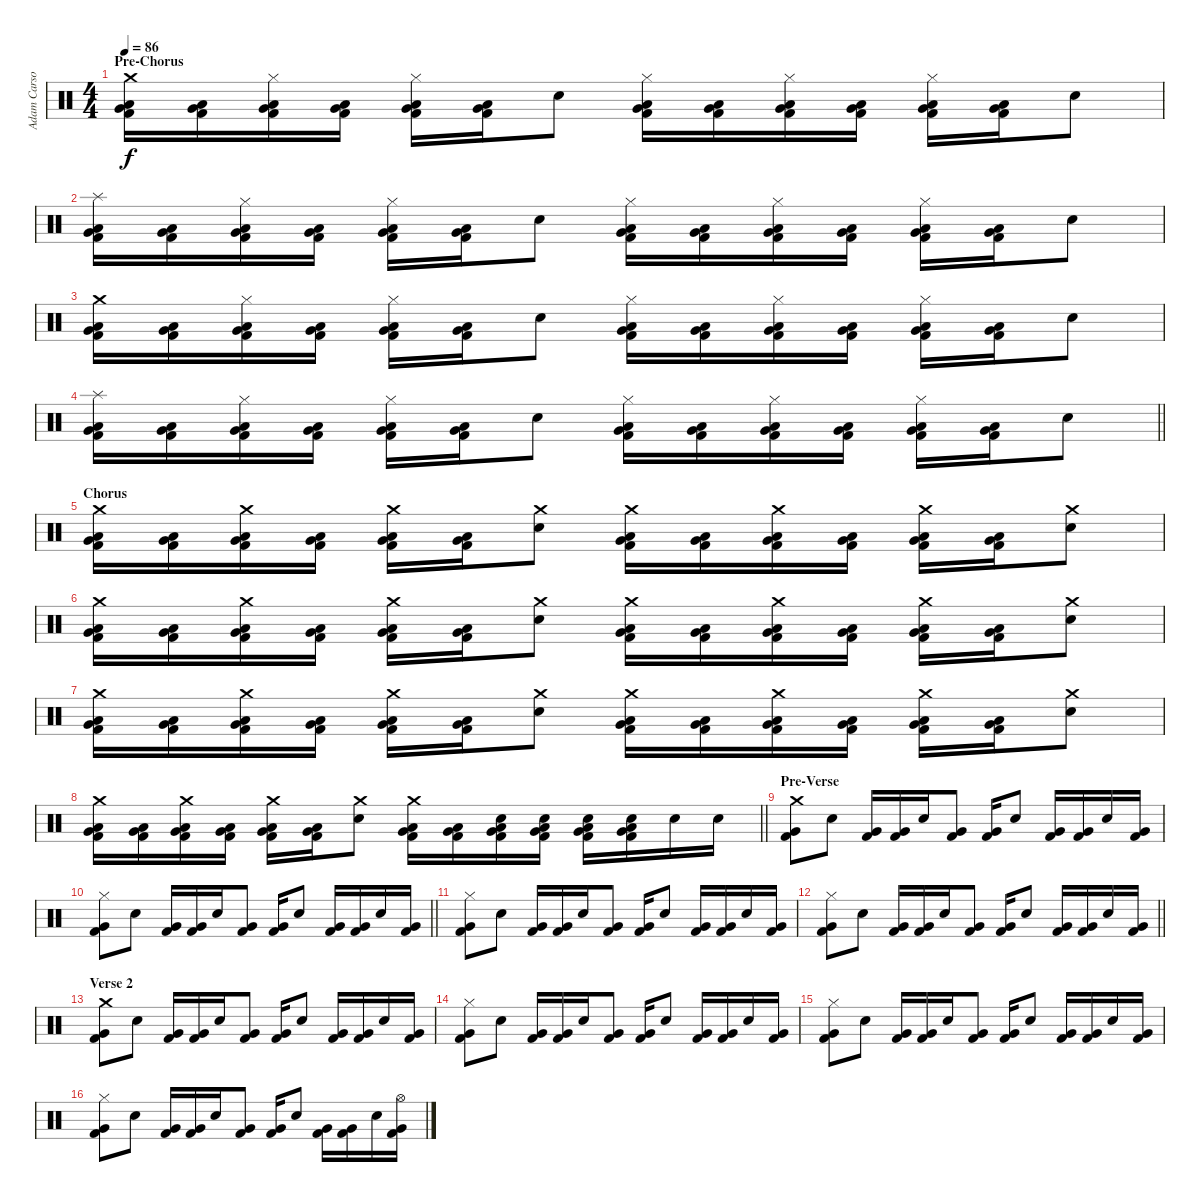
\track ("Adam Carson" "Adam Carso") {instrument percussion}
\staff {score}
\articulation defaults
\ts (4 4)
\section ("" "Pre-Chorus")
\tempo 86
\clef neutral
\ks c
("Crash medium (hit)" "Low Tom (hit)" "Very Low Tom (hit)" "Kick (hit) 2").16{dy f} ("Low Tom (hit)" "Very Low Tom (hit)" "Kick (hit) 2").16 ("Hi-Hat (closed)" "Low Tom (hit)" "Very Low Tom (hit)" "Kick (hit) 2").16 ("Low Tom (hit)" "Very Low Tom (hit)" "Kick (hit) 2").16 ("Hi-Hat (closed)" "Low Tom (hit)" "Very Low Tom (hit)" "Kick (hit) 2").16 ("Low Tom (hit)" "Very Low Tom (hit)" "Kick (hit) 2").16 "Snare (hit) 2".8 ("Hi-Hat (closed)" "Low Tom (hit)" "Very Low Tom (hit)" "Kick (hit) 2").16 ("Low Tom (hit)" "Very Low Tom (hit)" "Kick (hit) 2").16 ("Hi-Hat (closed)" "Low Tom (hit)" "Very Low Tom (hit)" "Kick (hit) 2").16 ("Low Tom (hit)" "Very Low Tom (hit)" "Kick (hit) 2").16 ("Hi-Hat (closed)" "Low Tom (hit)" "Very Low Tom (hit)" "Kick (hit) 2").16 ("Low Tom (hit)" "Very Low Tom (hit)" "Kick (hit) 2").16 "Snare (hit) 2".8 |
("Splash (hit)" "Low Tom (hit)" "Very Low Tom (hit)" "Kick (hit) 2").16 ("Low Tom (hit)" "Very Low Tom (hit)" "Kick (hit) 2").16 ("Hi-Hat (closed)" "Low Tom (hit)" "Very Low Tom (hit)" "Kick (hit) 2").16 ("Low Tom (hit)" "Very Low Tom (hit)" "Kick (hit) 2").16 ("Hi-Hat (closed)" "Low Tom (hit)" "Very Low Tom (hit)" "Kick (hit) 2").16 ("Low Tom (hit)" "Very Low Tom (hit)" "Kick (hit) 2").16 "Snare (hit) 2".8 ("Hi-Hat (closed)" "Low Tom (hit)" "Very Low Tom (hit)" "Kick (hit) 2").16 ("Low Tom (hit)" "Very Low Tom (hit)" "Kick (hit) 2").16 ("Hi-Hat (closed)" "Low Tom (hit)" "Very Low Tom (hit)" "Kick (hit) 2").16 ("Low Tom (hit)" "Very Low Tom (hit)" "Kick (hit) 2").16 ("Hi-Hat (closed)" "Low Tom (hit)" "Very Low Tom (hit)" "Kick (hit) 2").16 ("Low Tom (hit)" "Very Low Tom (hit)" "Kick (hit) 2").16 "Snare (hit) 2".8 |
("Crash medium (hit)" "Low Tom (hit)" "Very Low Tom (hit)" "Kick (hit) 2").16 ("Low Tom (hit)" "Very Low Tom (hit)" "Kick (hit) 2").16 ("Hi-Hat (closed)" "Low Tom (hit)" "Very Low Tom (hit)" "Kick (hit) 2").16 ("Low Tom (hit)" "Very Low Tom (hit)" "Kick (hit) 2").16 ("Hi-Hat (closed)" "Low Tom (hit)" "Very Low Tom (hit)" "Kick (hit) 2").16 ("Low Tom (hit)" "Very Low Tom (hit)" "Kick (hit) 2").16 "Snare (hit) 2".8 ("Hi-Hat (closed)" "Low Tom (hit)" "Very Low Tom (hit)" "Kick (hit) 2").16 ("Low Tom (hit)" "Very Low Tom (hit)" "Kick (hit) 2").16 ("Hi-Hat (closed)" "Low Tom (hit)" "Very Low Tom (hit)" "Kick (hit) 2").16 ("Low Tom (hit)" "Very Low Tom (hit)" "Kick (hit) 2").16 ("Hi-Hat (closed)" "Low Tom (hit)" "Very Low Tom (hit)" "Kick (hit) 2").16 ("Low Tom (hit)" "Very Low Tom (hit)" "Kick (hit) 2").16 "Snare (hit) 2".8 |
\barLineRight lightlight
("Splash (hit)" "Low Tom (hit)" "Very Low Tom (hit)" "Kick (hit) 2").16 ("Low Tom (hit)" "Very Low Tom (hit)" "Kick (hit) 2").16 ("Hi-Hat (closed)" "Low Tom (hit)" "Very Low Tom (hit)" "Kick (hit) 2").16 ("Low Tom (hit)" "Very Low Tom (hit)" "Kick (hit) 2").16 ("Hi-Hat (closed)" "Low Tom (hit)" "Very Low Tom (hit)" "Kick (hit) 2").16 ("Low Tom (hit)" "Very Low Tom (hit)" "Kick (hit) 2").16 "Snare (hit) 2".8 ("Hi-Hat (closed)" "Low Tom (hit)" "Very Low Tom (hit)" "Kick (hit) 2").16 ("Low Tom (hit)" "Very Low Tom (hit)" "Kick (hit) 2").16 ("Hi-Hat (closed)" "Low Tom (hit)" "Very Low Tom (hit)" "Kick (hit) 2").16 ("Low Tom (hit)" "Very Low Tom (hit)" "Kick (hit) 2").16 ("Hi-Hat (closed)" "Low Tom (hit)" "Very Low Tom (hit)" "Kick (hit) 2").16 ("Low Tom (hit)" "Very Low Tom (hit)" "Kick (hit) 2").16 "Snare (hit) 2".8 |
\section ("" "Chorus")
("Crash medium (hit)" "Low Tom (hit)" "Very Low Tom (hit)" "Kick (hit) 2").16 ("Low Tom (hit)" "Very Low Tom (hit)" "Kick (hit) 2").16 ("Crash medium (hit)" "Low Tom (hit)" "Very Low Tom (hit)" "Kick (hit) 2").16 ("Low Tom (hit)" "Very Low Tom (hit)" "Kick (hit) 2").16 ("Crash medium (hit)" "Low Tom (hit)" "Very Low Tom (hit)" "Kick (hit) 2").16 ("Low Tom (hit)" "Very Low Tom (hit)" "Kick (hit) 2").16 ("Crash medium (hit)" "Snare (hit) 2").8 ("Crash medium (hit)" "Low Tom (hit)" "Very Low Tom (hit)" "Kick (hit) 2").16 ("Low Tom (hit)" "Very Low Tom (hit)" "Kick (hit) 2").16 ("Crash medium (hit)" "Low Tom (hit)" "Very Low Tom (hit)" "Kick (hit) 2").16 ("Low Tom (hit)" "Very Low Tom (hit)" "Kick (hit) 2").16 ("Crash medium (hit)" "Low Tom (hit)" "Very Low Tom (hit)" "Kick (hit) 2").16 ("Low Tom (hit)" "Very Low Tom (hit)" "Kick (hit) 2").16 ("Crash medium (hit)" "Snare (hit) 2").8 |
("Crash medium (hit)" "Low Tom (hit)" "Very Low Tom (hit)" "Kick (hit) 2").16 ("Low Tom (hit)" "Very Low Tom (hit)" "Kick (hit) 2").16 ("Crash medium (hit)" "Low Tom (hit)" "Very Low Tom (hit)" "Kick (hit) 2").16 ("Low Tom (hit)" "Very Low Tom (hit)" "Kick (hit) 2").16 ("Crash medium (hit)" "Low Tom (hit)" "Very Low Tom (hit)" "Kick (hit) 2").16 ("Low Tom (hit)" "Very Low Tom (hit)" "Kick (hit) 2").16 ("Crash medium (hit)" "Snare (hit) 2").8 ("Crash medium (hit)" "Low Tom (hit)" "Very Low Tom (hit)" "Kick (hit) 2").16 ("Low Tom (hit)" "Very Low Tom (hit)" "Kick (hit) 2").16 ("Crash medium (hit)" "Low Tom (hit)" "Very Low Tom (hit)" "Kick (hit) 2").16 ("Low Tom (hit)" "Very Low Tom (hit)" "Kick (hit) 2").16 ("Crash medium (hit)" "Low Tom (hit)" "Very Low Tom (hit)" "Kick (hit) 2").16 ("Low Tom (hit)" "Very Low Tom (hit)" "Kick (hit) 2").16 ("Crash medium (hit)" "Snare (hit) 2").8 |
("Crash medium (hit)" "Low Tom (hit)" "Very Low Tom (hit)" "Kick (hit) 2").16 ("Low Tom (hit)" "Very Low Tom (hit)" "Kick (hit) 2").16 ("Crash medium (hit)" "Low Tom (hit)" "Very Low Tom (hit)" "Kick (hit) 2").16 ("Low Tom (hit)" "Very Low Tom (hit)" "Kick (hit) 2").16 ("Crash medium (hit)" "Low Tom (hit)" "Very Low Tom (hit)" "Kick (hit) 2").16 ("Low Tom (hit)" "Very Low Tom (hit)" "Kick (hit) 2").16 ("Crash medium (hit)" "Snare (hit) 2").8 ("Crash medium (hit)" "Low Tom (hit)" "Very Low Tom (hit)" "Kick (hit) 2").16 ("Low Tom (hit)" "Very Low Tom (hit)" "Kick (hit) 2").16 ("Crash medium (hit)" "Low Tom (hit)" "Very Low Tom (hit)" "Kick (hit) 2").16 ("Low Tom (hit)" "Very Low Tom (hit)" "Kick (hit) 2").16 ("Crash medium (hit)" "Low Tom (hit)" "Very Low Tom (hit)" "Kick (hit) 2").16 ("Low Tom (hit)" "Very Low Tom (hit)" "Kick (hit) 2").16 ("Crash medium (hit)" "Snare (hit) 2").8 |
\barLineRight lightlight
("Crash medium (hit)" "Low Tom (hit)" "Very Low Tom (hit)" "Kick (hit) 2").16 ("Low Tom (hit)" "Very Low Tom (hit)" "Kick (hit) 2").16 ("Crash medium (hit)" "Low Tom (hit)" "Very Low Tom (hit)" "Kick (hit) 2").16 ("Low Tom (hit)" "Very Low Tom (hit)" "Kick (hit) 2").16 ("Crash medium (hit)" "Low Tom (hit)" "Very Low Tom (hit)" "Kick (hit) 2").16 ("Low Tom (hit)" "Very Low Tom (hit)" "Kick (hit) 2").16 ("Crash medium (hit)" "Snare (hit) 2").8 ("Crash medium (hit)" "Low Tom (hit)" "Very Low Tom (hit)" "Kick (hit) 2").16 ("Low Tom (hit)" "Very Low Tom (hit)" "Kick (hit) 2").16 ("Snare (hit) 2" "Low Tom (hit)" "Very Low Tom (hit)" "Kick (hit) 2").16 ("Snare (hit) 2" "Low Tom (hit)" "Very Low Tom (hit)" "Kick (hit) 2").16 ("Snare (hit) 2" "Low Tom (hit)" "Very Low Tom (hit)" "Kick (hit) 2").16 ("Snare (hit) 2" "Low Tom (hit)" "Very Low Tom (hit)" "Kick (hit) 2").16 "Snare (hit) 2".16 "Snare (hit) 2".16 |
\section ("" "Pre-Verse")
("Crash medium (hit)" "Very Low Tom (hit)" "Kick (hit) 2").8 "Snare (hit) 2".8 ("Very Low Tom (hit)" "Kick (hit) 2").16 ("Very Low Tom (hit)" "Kick (hit) 2").16 "Snare (hit) 2".16 ("Very Low Tom (hit)" "Kick (hit) 2").8 ("Very Low Tom (hit)" "Kick (hit) 2").16 "Snare (hit) 2".8 ("Very Low Tom (hit)" "Kick (hit) 2").16 ("Very Low Tom (hit)" "Kick (hit) 2").16 "Snare (hit) 2".16 ("Very Low Tom (hit)" "Kick (hit) 2").16 |
\barLineRight lightlight
("Hi-Hat (closed)" "Very Low Tom (hit)" "Kick (hit) 2").8 "Snare (hit) 2".8 ("Very Low Tom (hit)" "Kick (hit) 2").16 ("Very Low Tom (hit)" "Kick (hit) 2").16 "Snare (hit) 2".16 ("Very Low Tom (hit)" "Kick (hit) 2").8 ("Very Low Tom (hit)" "Kick (hit) 2").16 "Snare (hit) 2".8 ("Very Low Tom (hit)" "Kick (hit) 2").16 ("Very Low Tom (hit)" "Kick (hit) 2").16 "Snare (hit) 2".16 ("Very Low Tom (hit)" "Kick (hit) 2").16 |
("Hi-Hat (closed)" "Very Low Tom (hit)" "Kick (hit) 2").8 "Snare (hit) 2".8 ("Very Low Tom (hit)" "Kick (hit) 2").16 ("Very Low Tom (hit)" "Kick (hit) 2").16 "Snare (hit) 2".16 ("Very Low Tom (hit)" "Kick (hit) 2").8 ("Very Low Tom (hit)" "Kick (hit) 2").16 "Snare (hit) 2".8 ("Very Low Tom (hit)" "Kick (hit) 2").16 ("Very Low Tom (hit)" "Kick (hit) 2").16 "Snare (hit) 2".16 ("Very Low Tom (hit)" "Kick (hit) 2").16 |
\barLineRight lightlight
("Hi-Hat (closed)" "Very Low Tom (hit)" "Kick (hit) 2").8 "Snare (hit) 2".8 ("Very Low Tom (hit)" "Kick (hit) 2").16 ("Very Low Tom (hit)" "Kick (hit) 2").16 "Snare (hit) 2".16 ("Very Low Tom (hit)" "Kick (hit) 2").8 ("Very Low Tom (hit)" "Kick (hit) 2").16 "Snare (hit) 2".8 ("Very Low Tom (hit)" "Kick (hit) 2").16 ("Very Low Tom (hit)" "Kick (hit) 2").16 "Snare (hit) 2".16 ("Very Low Tom (hit)" "Kick (hit) 2").16 |
\section ("" "Verse 2")
("Crash medium (hit)" "Very Low Tom (hit)" "Kick (hit) 2").8 "Snare (hit) 2".8 ("Very Low Tom (hit)" "Kick (hit) 2").16 ("Very Low Tom (hit)" "Kick (hit) 2").16 "Snare (hit) 2".16 ("Very Low Tom (hit)" "Kick (hit) 2").8 ("Very Low Tom (hit)" "Kick (hit) 2").16 "Snare (hit) 2".8 ("Very Low Tom (hit)" "Kick (hit) 2").16 ("Very Low Tom (hit)" "Kick (hit) 2").16 "Snare (hit) 2".16 ("Very Low Tom (hit)" "Kick (hit) 2").16 |
("Hi-Hat (closed)" "Very Low Tom (hit)" "Kick (hit) 2").8 "Snare (hit) 2".8 ("Very Low Tom (hit)" "Kick (hit) 2").16 ("Very Low Tom (hit)" "Kick (hit) 2").16 "Snare (hit) 2".16 ("Very Low Tom (hit)" "Kick (hit) 2").8 ("Very Low Tom (hit)" "Kick (hit) 2").16 "Snare (hit) 2".8 ("Very Low Tom (hit)" "Kick (hit) 2").16 ("Very Low Tom (hit)" "Kick (hit) 2").16 "Snare (hit) 2".16 ("Very Low Tom (hit)" "Kick (hit) 2").16 |
("Hi-Hat (closed)" "Very Low Tom (hit)" "Kick (hit) 2").8 "Snare (hit) 2".8 ("Very Low Tom (hit)" "Kick (hit) 2").16 ("Very Low Tom (hit)" "Kick (hit) 2").16 "Snare (hit) 2".16 ("Very Low Tom (hit)" "Kick (hit) 2").8 ("Very Low Tom (hit)" "Kick (hit) 2").16 "Snare (hit) 2".8 ("Very Low Tom (hit)" "Kick (hit) 2").16 ("Very Low Tom (hit)" "Kick (hit) 2").16 "Snare (hit) 2".16 ("Very Low Tom (hit)" "Kick (hit) 2").16 |
("Hi-Hat (closed)" "Very Low Tom (hit)" "Kick (hit) 2").8 "Snare (hit) 2".8 ("Very Low Tom (hit)" "Kick (hit) 2").16 ("Very Low Tom (hit)" "Kick (hit) 2").16 "Snare (hit) 2".16 ("Very Low Tom (hit)" "Kick (hit) 2").8 ("Very Low Tom (hit)" "Kick (hit) 2").16 "Snare (hit) 2".8 ("Very Low Tom (hit)" "Kick (hit) 2").16 ("Very Low Tom (hit)" "Kick (hit) 2").16 "Snare (hit) 2".16 ("Hi-Hat (open)" "Very Low Tom (hit)" "Kick (hit) 2").16
